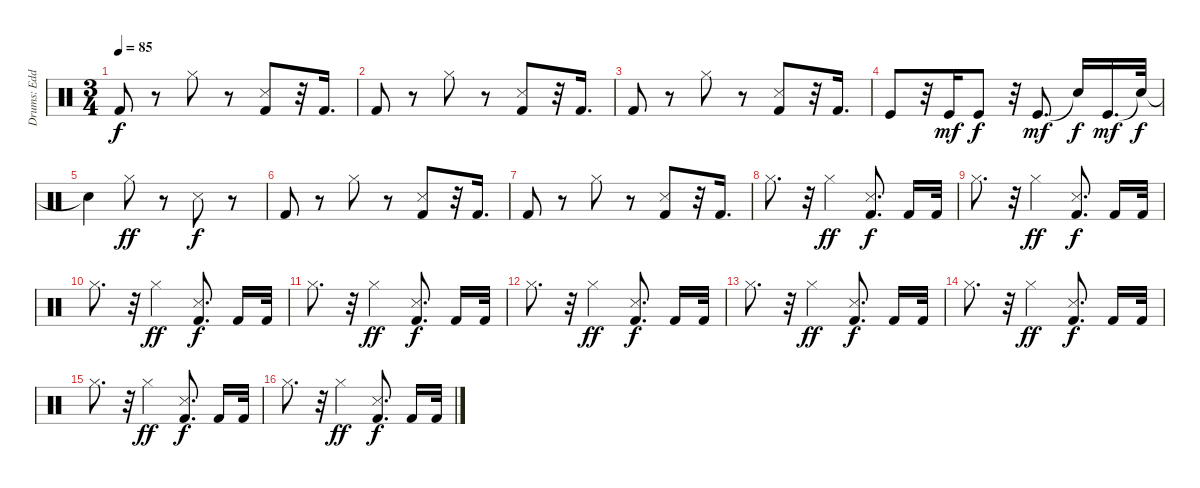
\track ("Drums: Eddie Bayers" "Drums: Edd") {instrument percussion}
\staff {score}
\articulation defaults
\ts (3 4)
\tempo 85
\clef neutral
\ks c "Kick (hit) 2".8{dy f}
r.8 "Hi-Hat (closed)".8 r.8 ("Snare (side stick) 3" "Kick (hit) 2").8 r.32 "Kick (hit) 2".16{d} |
"Kick (hit) 2".8 r.8 "Hi-Hat (closed)".8 r.8 ("Snare (side stick) 3" "Kick (hit) 2").8 r.32 "Kick (hit) 2".16{d} |
"Kick (hit) 2".8 r.8 "Hi-Hat (closed)".8 r.8 ("Snare (side stick) 3" "Kick (hit) 2").8 r.32 "Kick (hit) 2".16{d} |
"Kick (hit)".8 r.32 "Kick (hit)".16{dy mf} "Kick (hit)".8{dy f} r.32 "Kick (hit)".8{d dy mf} "Snare (hit)"{t}.16{dy f} "Kick (hit)".16{d dy mf} "Snare (hit)"{t}.32{dy f} |
"Snare (hit)"{t}.4 "Hi-Hat (closed)".8{dy ff} r.8 "Snare (side stick) 3".8{dy f} r.8 |
"Kick (hit) 2".8 r.8 "Hi-Hat (closed)".8 r.8 ("Snare (side stick) 3" "Kick (hit) 2").8 r.32 "Kick (hit) 2".16{d} |
"Kick (hit) 2".8 r.8 "Hi-Hat (closed)".8 r.8 ("Snare (side stick) 3" "Kick (hit) 2").8 r.32 "Kick (hit) 2".16{d} |
"Hi-Hat (closed)".8{d} r.32 "Hi-Hat (closed)".4{dy ff} ("Snare (side stick) 3" "Kick (hit) 2").8{d dy f} "Kick (hit) 2".16 "Kick (hit) 2".32 |
"Hi-Hat (closed)".8{d} r.32 "Hi-Hat (closed)".4{dy ff} ("Snare (side stick) 3" "Kick (hit) 2").8{d dy f} "Kick (hit) 2".16 "Kick (hit) 2".32 |
"Hi-Hat (closed)".8{d} r.32 "Hi-Hat (closed)".4{dy ff} ("Snare (side stick) 3" "Kick (hit) 2").8{d dy f} "Kick (hit) 2".16 "Kick (hit) 2".32 |
"Hi-Hat (closed)".8{d} r.32 "Hi-Hat (closed)".4{dy ff} ("Snare (side stick) 3" "Kick (hit) 2").8{d dy f} "Kick (hit) 2".16 "Kick (hit) 2".32 |
"Hi-Hat (closed)".8{d} r.32 "Hi-Hat (closed)".4{dy ff} ("Snare (side stick) 3" "Kick (hit) 2").8{d dy f} "Kick (hit) 2".16 "Kick (hit) 2".32 |
"Hi-Hat (closed)".8{d} r.32 "Hi-Hat (closed)".4{dy ff} ("Snare (side stick) 3" "Kick (hit) 2").8{d dy f} "Kick (hit) 2".16 "Kick (hit) 2".32 |
"Hi-Hat (closed)".8{d} r.32 "Hi-Hat (closed)".4{dy ff} ("Snare (side stick) 3" "Kick (hit) 2").8{d dy f} "Kick (hit) 2".16 "Kick (hit) 2".32 |
"Hi-Hat (closed)".8{d} r.32 "Hi-Hat (closed)".4{dy ff} ("Snare (side stick) 3" "Kick (hit) 2").8{d dy f} "Kick (hit) 2".16 "Kick (hit) 2".32 |
"Hi-Hat (closed)".8{d} r.32 "Hi-Hat (closed)".4{dy ff} ("Snare (side stick) 3" "Kick (hit) 2").8{d dy f} "Kick (hit) 2".16 "Kick (hit) 2".32
